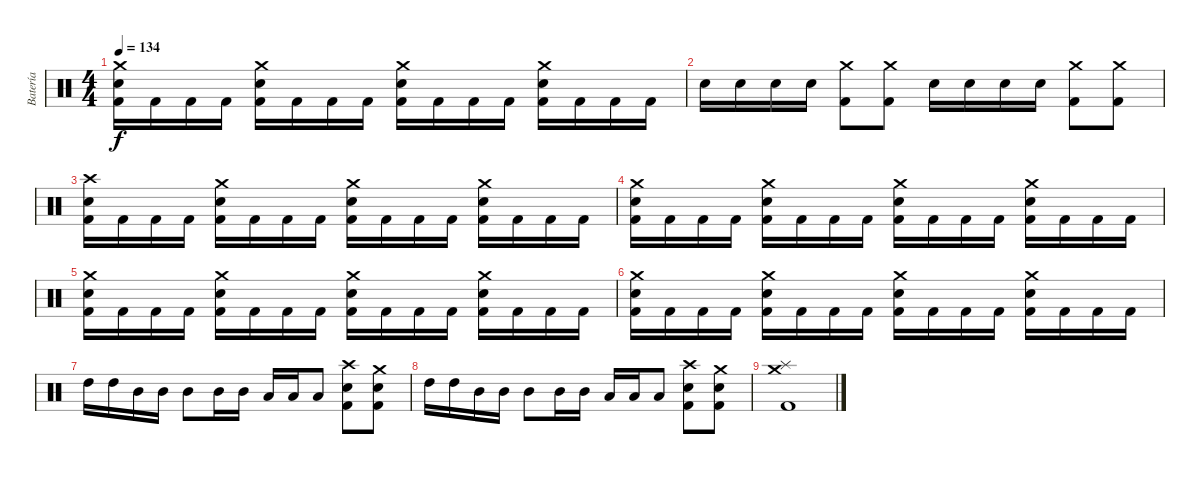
\track ("Batería" "Batería") {instrument percussion}
\staff {score}
\articulation defaults
\ts (4 4)
\tempo 134
\clef neutral
\ks c
("Crash medium (hit)" "Electric Snare (hit)" "Kick (hit) 2").16{dy f} "Kick (hit) 2".16 "Kick (hit) 2".16 "Kick (hit) 2".16 ("Crash medium (hit)" "Electric Snare (hit)" "Kick (hit) 2").16 "Kick (hit) 2".16 "Kick (hit) 2".16 "Kick (hit) 2".16 ("Crash medium (hit)" "Electric Snare (hit)" "Kick (hit) 2").16 "Kick (hit) 2".16 "Kick (hit) 2".16 "Kick (hit) 2".16 ("Crash medium (hit)" "Electric Snare (hit)" "Kick (hit) 2").16 "Kick (hit) 2".16 "Kick (hit) 2".16 "Kick (hit) 2".16 |
"Electric Snare (hit)".16 "Electric Snare (hit)".16 "Electric Snare (hit)".16 "Electric Snare (hit)".16 ("Crash medium (hit)" "Kick (hit) 2").8 ("Crash medium (hit)" "Kick (hit) 2").8 "Electric Snare (hit)".16 "Electric Snare (hit)".16 "Electric Snare (hit)".16 "Electric Snare (hit)".16 ("Crash medium (hit)" "Kick (hit) 2").8 ("Crash medium (hit)" "Kick (hit) 2").8 |
("Crash high (hit)" "Electric Snare (hit)" "Kick (hit) 2").16 "Kick (hit) 2".16 "Kick (hit) 2".16 "Kick (hit) 2".16 ("Crash medium (hit)" "Electric Snare (hit)" "Kick (hit) 2").16 "Kick (hit) 2".16 "Kick (hit) 2".16 "Kick (hit) 2".16 ("Crash medium (hit)" "Electric Snare (hit)" "Kick (hit) 2").16 "Kick (hit) 2".16 "Kick (hit) 2".16 "Kick (hit) 2".16 ("Crash medium (hit)" "Electric Snare (hit)" "Kick (hit) 2").16 "Kick (hit) 2".16 "Kick (hit) 2".16 "Kick (hit) 2".16 |
("Crash medium (hit)" "Electric Snare (hit)" "Kick (hit) 2").16 "Kick (hit) 2".16 "Kick (hit) 2".16 "Kick (hit) 2".16 ("Crash medium (hit)" "Electric Snare (hit)" "Kick (hit) 2").16 "Kick (hit) 2".16 "Kick (hit) 2".16 "Kick (hit) 2".16 ("Crash medium (hit)" "Electric Snare (hit)" "Kick (hit) 2").16 "Kick (hit) 2".16 "Kick (hit) 2".16 "Kick (hit) 2".16 ("Crash medium (hit)" "Electric Snare (hit)" "Kick (hit) 2").16 "Kick (hit) 2".16 "Kick (hit) 2".16 "Kick (hit) 2".16 |
("Crash medium (hit)" "Electric Snare (hit)" "Kick (hit) 2").16 "Kick (hit) 2".16 "Kick (hit) 2".16 "Kick (hit) 2".16 ("Crash medium (hit)" "Electric Snare (hit)" "Kick (hit) 2").16 "Kick (hit) 2".16 "Kick (hit) 2".16 "Kick (hit) 2".16 ("Crash medium (hit)" "Electric Snare (hit)" "Kick (hit) 2").16 "Kick (hit) 2".16 "Kick (hit) 2".16 "Kick (hit) 2".16 ("Crash medium (hit)" "Electric Snare (hit)" "Kick (hit) 2").16 "Kick (hit) 2".16 "Kick (hit) 2".16 "Kick (hit) 2".16 |
("Crash medium (hit)" "Electric Snare (hit)" "Kick (hit) 2").16 "Kick (hit) 2".16 "Kick (hit) 2".16 "Kick (hit) 2".16 ("Crash medium (hit)" "Electric Snare (hit)" "Kick (hit) 2").16 "Kick (hit) 2".16 "Kick (hit) 2".16 "Kick (hit) 2".16 ("Crash medium (hit)" "Electric Snare (hit)" "Kick (hit) 2").16 "Kick (hit) 2".16 "Kick (hit) 2".16 "Kick (hit) 2".16 ("Crash medium (hit)" "Electric Snare (hit)" "Kick (hit) 2").16 "Kick (hit) 2".16 "Kick (hit) 2".16 "Kick (hit) 2".16 |
"High Tom (hit)".16 "High Tom (hit)".16 "Mid Tom (hit)".16 "Mid Tom (hit)".16 "Mid Tom (hit)".8 "Mid Tom (hit)".16 "Mid Tom (hit)".16 "Low Tom (hit)".16 "Low Tom (hit)".16 "Low Tom (hit)".8 ("Crash high (hit)" "Electric Snare (hit)" "Kick (hit) 2").8 ("Crash medium (hit)" "Electric Snare (hit)" "Kick (hit) 2").8 |
"High Tom (hit)".16 "High Tom (hit)".16 "Mid Tom (hit)".16 "Mid Tom (hit)".16 "Mid Tom (hit)".8 "Mid Tom (hit)".16 "Mid Tom (hit)".16 "Low Tom (hit)".16 "Low Tom (hit)".16 "Low Tom (hit)".8 ("Crash high (hit)" "Electric Snare (hit)" "Kick (hit) 2").8 ("Crash medium (hit)" "Electric Snare (hit)" "Kick (hit) 2").8 |
("Crash medium (hit)" "Splash (hit)" "Kick (hit) 2").1
